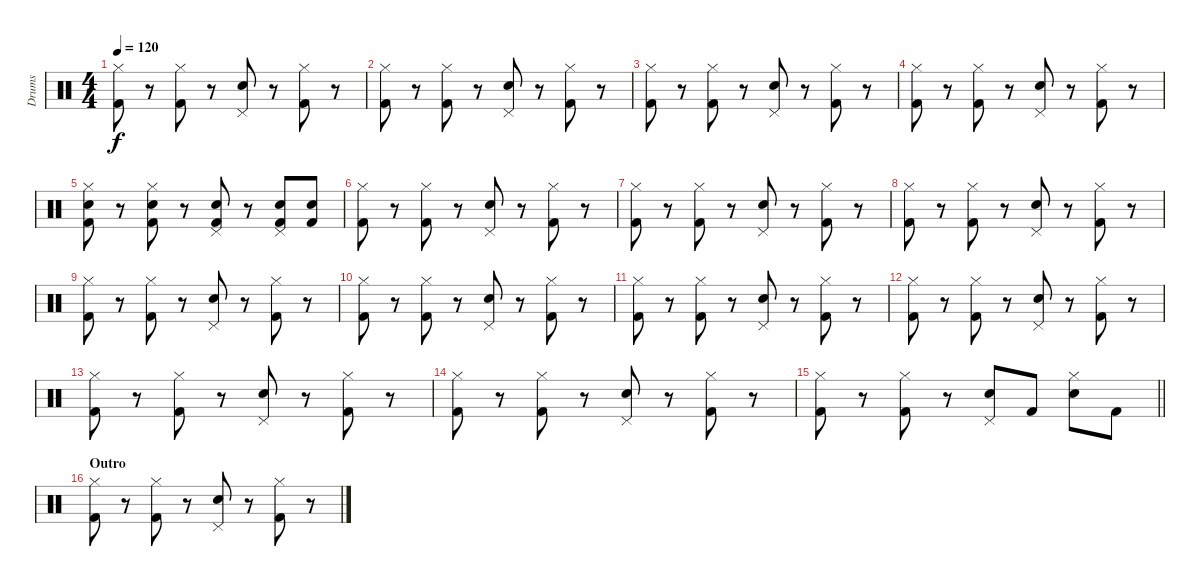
\track ("Drums" "Drums") {instrument percussion}
\staff {score}
\articulation defaults
\ts (4 4)
\tempo 120
\clef neutral
\ks c
("Hi-Hat (closed)" "Kick (hit) 2").8{dy f} r.8 ("Hi-Hat (closed)" "Kick (hit) 2").8 r.8 ("Pedal Hi-Hat (hit)" "Electric Snare (hit)").8 r.8 ("Hi-Hat (closed)" "Kick (hit) 2").8 r.8 |
("Hi-Hat (closed)" "Kick (hit) 2").8 r.8 ("Hi-Hat (closed)" "Kick (hit) 2").8 r.8 ("Pedal Hi-Hat (hit)" "Electric Snare (hit)").8 r.8 ("Hi-Hat (closed)" "Kick (hit) 2").8 r.8 |
("Hi-Hat (closed)" "Kick (hit) 2").8 r.8 ("Hi-Hat (closed)" "Kick (hit) 2").8 r.8 ("Pedal Hi-Hat (hit)" "Electric Snare (hit)").8 r.8 ("Hi-Hat (closed)" "Kick (hit) 2").8 r.8 |
("Hi-Hat (closed)" "Kick (hit) 2").8 r.8 ("Hi-Hat (closed)" "Kick (hit) 2").8 r.8 ("Pedal Hi-Hat (hit)" "Electric Snare (hit)").8 r.8 ("Hi-Hat (closed)" "Kick (hit) 2").8 r.8 |
("Hi-Hat (closed)" "Electric Snare (hit)" "Kick (hit) 2").8 r.8 ("Hi-Hat (closed)" "Electric Snare (hit)" "Kick (hit) 2").8 r.8 ("Pedal Hi-Hat (hit)" "Electric Snare (hit)" "Kick (hit) 2").8 r.8 ("Pedal Hi-Hat (hit)" "Electric Snare (hit)" "Kick (hit) 2").8 ("Electric Snare (hit)" "Kick (hit) 2").8 |
("Hi-Hat (closed)" "Kick (hit) 2").8 r.8 ("Hi-Hat (closed)" "Kick (hit) 2").8 r.8 ("Pedal Hi-Hat (hit)" "Electric Snare (hit)").8 r.8 ("Hi-Hat (closed)" "Kick (hit) 2").8 r.8 |
("Hi-Hat (closed)" "Kick (hit) 2").8 r.8 ("Hi-Hat (closed)" "Kick (hit) 2").8 r.8 ("Pedal Hi-Hat (hit)" "Electric Snare (hit)").8 r.8 ("Hi-Hat (closed)" "Kick (hit) 2").8 r.8 |
("Hi-Hat (closed)" "Kick (hit) 2").8 r.8 ("Hi-Hat (closed)" "Kick (hit) 2").8 r.8 ("Pedal Hi-Hat (hit)" "Electric Snare (hit)").8 r.8 ("Hi-Hat (closed)" "Kick (hit) 2").8 r.8 |
("Hi-Hat (closed)" "Kick (hit) 2").8 r.8 ("Hi-Hat (closed)" "Kick (hit) 2").8 r.8 ("Pedal Hi-Hat (hit)" "Electric Snare (hit)").8 r.8 ("Hi-Hat (closed)" "Kick (hit) 2").8 r.8 |
("Hi-Hat (closed)" "Kick (hit) 2").8 r.8 ("Hi-Hat (closed)" "Kick (hit) 2").8 r.8 ("Pedal Hi-Hat (hit)" "Electric Snare (hit)").8 r.8 ("Hi-Hat (closed)" "Kick (hit) 2").8 r.8 |
("Hi-Hat (closed)" "Kick (hit) 2").8 r.8 ("Hi-Hat (closed)" "Kick (hit) 2").8 r.8 ("Pedal Hi-Hat (hit)" "Electric Snare (hit)").8 r.8 ("Hi-Hat (closed)" "Kick (hit) 2").8 r.8 |
("Hi-Hat (closed)" "Kick (hit) 2").8 r.8 ("Hi-Hat (closed)" "Kick (hit) 2").8 r.8 ("Pedal Hi-Hat (hit)" "Electric Snare (hit)").8 r.8 ("Hi-Hat (closed)" "Kick (hit) 2").8 r.8 |
("Hi-Hat (closed)" "Kick (hit) 2").8 r.8 ("Hi-Hat (closed)" "Kick (hit) 2").8 r.8 ("Pedal Hi-Hat (hit)" "Electric Snare (hit)").8 r.8 ("Hi-Hat (closed)" "Kick (hit) 2").8 r.8 |
("Hi-Hat (closed)" "Kick (hit) 2").8 r.8 ("Hi-Hat (closed)" "Kick (hit) 2").8 r.8 ("Pedal Hi-Hat (hit)" "Electric Snare (hit)").8 r.8 ("Hi-Hat (closed)" "Kick (hit) 2").8 r.8 |
\barLineRight lightlight
("Hi-Hat (closed)" "Kick (hit) 2").8 r.8 ("Hi-Hat (closed)" "Kick (hit) 2").8 r.8 ("Pedal Hi-Hat (hit)" "Electric Snare (hit)").8 "Kick (hit) 2".8 ("Hi-Hat (closed)" "Electric Snare (hit)").8 "Kick (hit) 2".8 |
\section ("" "Outro")
("Hi-Hat (closed)" "Kick (hit) 2").8 r.8 ("Hi-Hat (closed)" "Kick (hit) 2").8 r.8 ("Pedal Hi-Hat (hit)" "Electric Snare (hit)").8 r.8 ("Hi-Hat (closed)" "Kick (hit) 2").8 r.8
